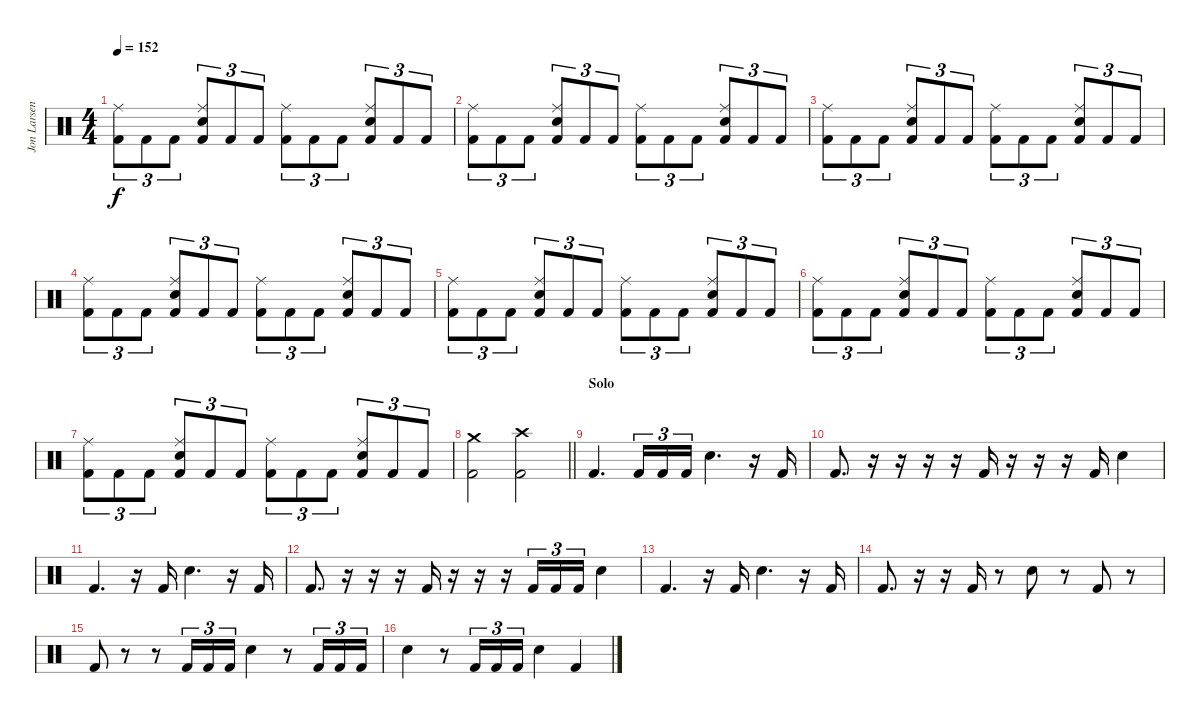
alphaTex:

\track ("Jon Larsen" "Jon Larsen") {instrument percussion}
\staff {score}
\articulation defaults
\ts (4 4)
\tempo 152
\clef neutral
\ks c
("Kick (hit) 2" "Ride (middle)").8{tu (3 2) dy f} "Kick (hit) 2".8{tu (3 2)} "Kick (hit) 2".8{tu (3 2)} ("Kick (hit) 2" "Electric Snare (hit)" "Ride (middle)").8{tu (3 2)} "Kick (hit) 2".8{tu (3 2)} "Kick (hit) 2".8{tu (3 2)} ("Kick (hit) 2" "Ride (middle)").8{tu (3 2)} "Kick (hit) 2".8{tu (3 2)} "Kick (hit) 2".8{tu (3 2)} ("Kick (hit) 2" "Electric Snare (hit)" "Ride (middle)").8{tu (3 2)} "Kick (hit) 2".8{tu (3 2)} "Kick (hit) 2".8{tu (3 2)} |
("Kick (hit) 2" "Ride (middle)").8{tu (3 2)} "Kick (hit) 2".8{tu (3 2)} "Kick (hit) 2".8{tu (3 2)} ("Kick (hit) 2" "Electric Snare (hit)" "Ride (middle)").8{tu (3 2)} "Kick (hit) 2".8{tu (3 2)} "Kick (hit) 2".8{tu (3 2)} ("Kick (hit) 2" "Ride (middle)").8{tu (3 2)} "Kick (hit) 2".8{tu (3 2)} "Kick (hit) 2".8{tu (3 2)} ("Kick (hit) 2" "Electric Snare (hit)" "Ride (middle)").8{tu (3 2)} "Kick (hit) 2".8{tu (3 2)} "Kick (hit) 2".8{tu (3 2)} |
("Kick (hit) 2" "Ride (middle)").8{tu (3 2)} "Kick (hit) 2".8{tu (3 2)} "Kick (hit) 2".8{tu (3 2)} ("Kick (hit) 2" "Electric Snare (hit)" "Ride (middle)").8{tu (3 2)} "Kick (hit) 2".8{tu (3 2)} "Kick (hit) 2".8{tu (3 2)} ("Kick (hit) 2" "Ride (middle)").8{tu (3 2)} "Kick (hit) 2".8{tu (3 2)} "Kick (hit) 2".8{tu (3 2)} ("Kick (hit) 2" "Electric Snare (hit)" "Ride (middle)").8{tu (3 2)} "Kick (hit) 2".8{tu (3 2)} "Kick (hit) 2".8{tu (3 2)} |
("Kick (hit) 2" "Ride (middle)").8{tu (3 2)} "Kick (hit) 2".8{tu (3 2)} "Kick (hit) 2".8{tu (3 2)} ("Kick (hit) 2" "Electric Snare (hit)" "Ride (middle)").8{tu (3 2)} "Kick (hit) 2".8{tu (3 2)} "Kick (hit) 2".8{tu (3 2)} ("Kick (hit) 2" "Ride (middle)").8{tu (3 2)} "Kick (hit) 2".8{tu (3 2)} "Kick (hit) 2".8{tu (3 2)} ("Kick (hit) 2" "Electric Snare (hit)" "Ride (middle)").8{tu (3 2)} "Kick (hit) 2".8{tu (3 2)} "Kick (hit) 2".8{tu (3 2)} |
("Kick (hit) 2" "Ride (middle)").8{tu (3 2)} "Kick (hit) 2".8{tu (3 2)} "Kick (hit) 2".8{tu (3 2)} ("Kick (hit) 2" "Electric Snare (hit)" "Ride (middle)").8{tu (3 2)} "Kick (hit) 2".8{tu (3 2)} "Kick (hit) 2".8{tu (3 2)} ("Kick (hit) 2" "Ride (middle)").8{tu (3 2)} "Kick (hit) 2".8{tu (3 2)} "Kick (hit) 2".8{tu (3 2)} ("Kick (hit) 2" "Electric Snare (hit)" "Ride (middle)").8{tu (3 2)} "Kick (hit) 2".8{tu (3 2)} "Kick (hit) 2".8{tu (3 2)} |
("Kick (hit) 2" "Ride (middle)").8{tu (3 2)} "Kick (hit) 2".8{tu (3 2)} "Kick (hit) 2".8{tu (3 2)} ("Kick (hit) 2" "Electric Snare (hit)" "Ride (middle)").8{tu (3 2)} "Kick (hit) 2".8{tu (3 2)} "Kick (hit) 2".8{tu (3 2)} ("Kick (hit) 2" "Ride (middle)").8{tu (3 2)} "Kick (hit) 2".8{tu (3 2)} "Kick (hit) 2".8{tu (3 2)} ("Kick (hit) 2" "Electric Snare (hit)" "Ride (middle)").8{tu (3 2)} "Kick (hit) 2".8{tu (3 2)} "Kick (hit) 2".8{tu (3 2)} |
("Kick (hit) 2" "Ride (middle)").8{tu (3 2)} "Kick (hit) 2".8{tu (3 2)} "Kick (hit) 2".8{tu (3 2)} ("Kick (hit) 2" "Electric Snare (hit)" "Ride (middle)").8{tu (3 2)} "Kick (hit) 2".8{tu (3 2)} "Kick (hit) 2".8{tu (3 2)} ("Kick (hit) 2" "Ride (middle)").8{tu (3 2)} "Kick (hit) 2".8{tu (3 2)} "Kick (hit) 2".8{tu (3 2)} ("Kick (hit) 2" "Electric Snare (hit)" "Ride (middle)").8{tu (3 2)} "Kick (hit) 2".8{tu (3 2)} "Kick (hit) 2".8{tu (3 2)} |
\barLineRight lightlight
("Crash medium (hit)" "Kick (hit) 2").2 ("Crash high (hit)" "Kick (hit) 2").2 |
\section ("" "Solo")
"Kick (hit) 2".4{d} "Kick (hit) 2".16{tu (3 2)} "Kick (hit) 2".16{tu (3 2)} "Kick (hit) 2".16{tu (3 2)} "Electric Snare (hit)".4{d} r.16 "Kick (hit) 2".16 |
"Kick (hit) 2".8{d} r.16 r.16 r.16 r.16 "Kick (hit) 2".16 r.16 r.16 r.16 "Kick (hit) 2".16 "Electric Snare (hit)".4 |
"Kick (hit) 2".4{d} r.16 "Kick (hit) 2".16 "Electric Snare (hit)".4{d} r.16 "Kick (hit) 2".16 |
"Kick (hit) 2".8{d} r.16 r.16 r.16 "Kick (hit) 2".16 r.16 r.16 r.16 "Kick (hit) 2".16{tu (3 2)} "Kick (hit) 2".16{tu (3 2)} "Kick (hit) 2".16{tu (3 2)} "Electric Snare (hit)".4 |
"Kick (hit) 2".4{d} r.16 "Kick (hit) 2".16 "Electric Snare (hit)".4{d} r.16 "Kick (hit) 2".16 |
"Kick (hit) 2".8{d} r.16 r.16 "Kick (hit) 2".16 r.8 "Electric Snare (hit)".8 r.8 "Kick (hit) 2".8 r.8 |
"Kick (hit) 2".8 r.8 r.8 "Kick (hit) 2".16{tu (3 2)} "Kick (hit) 2".16{tu (3 2)} "Kick (hit) 2".16{tu (3 2)} "Electric Snare (hit)".4 r.8 "Kick (hit) 2".16{tu (3 2)} "Kick (hit) 2".16{tu (3 2)} "Kick (hit) 2".16{tu (3 2)} |
"Electric Snare (hit)".4 r.8 "Kick (hit) 2".16{tu (3 2)} "Kick (hit) 2".16{tu (3 2)} "Kick (hit) 2".16{tu (3 2)} "Electric Snare (hit)".4 "Kick (hit) 2".4
